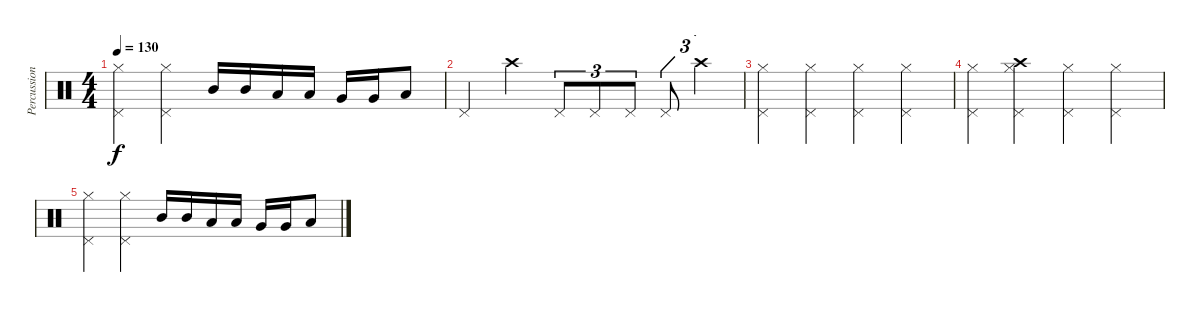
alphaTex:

\track ("Percussion" "Percussion") {instrument percussion}
\staff {score}
\articulation defaults
\ts (4 4)
\tempo 130
\clef neutral
\ks c
("Pedal Hi-Hat (hit)" "Hi-Hat (closed)").4{dy f volume 0} ("Pedal Hi-Hat (hit)" "Hi-Hat (closed)").4 "Mid Tom (hit)".16 "Mid Tom (hit)".16 "Low Tom (hit)".16 "Low Tom (hit)".16 "Very Low Tom (hit)".16 "Very Low Tom (hit)".16 "Low Floor Tom (hit)".8 |
"Pedal Hi-Hat (hit)".4 "Crash high (hit)".4 "Pedal Hi-Hat (hit)".8{tu (3 2)} "Pedal Hi-Hat (hit)".8{tu (3 2)} "Pedal Hi-Hat (hit)".8{tu (3 2)} "Pedal Hi-Hat (hit)".8{tu (3 2)} "Crash high (hit)".4{tu (3 2)} |
("Pedal Hi-Hat (hit)" "Hi-Hat (closed)").4 ("Pedal Hi-Hat (hit)" "Hi-Hat (closed)").4 ("Pedal Hi-Hat (hit)" "Hi-Hat (closed)").4 ("Pedal Hi-Hat (hit)" "Hi-Hat (closed)").4 |
("Pedal Hi-Hat (hit)" "Hi-Hat (closed)").4 ("Crash high (hit)" "Pedal Hi-Hat (hit)" "Hi-Hat (closed)").4 ("Pedal Hi-Hat (hit)" "Hi-Hat (closed)").4 ("Pedal Hi-Hat (hit)" "Hi-Hat (closed)").4 |
("Pedal Hi-Hat (hit)" "Hi-Hat (closed)").4 ("Pedal Hi-Hat (hit)" "Hi-Hat (closed)").4 "Mid Tom (hit)".16 "Mid Tom (hit)".16 "Low Tom (hit)".16 "Low Tom (hit)".16 "Very Low Tom (hit)".16 "Very Low Tom (hit)".16 "Low Floor Tom (hit)".8
